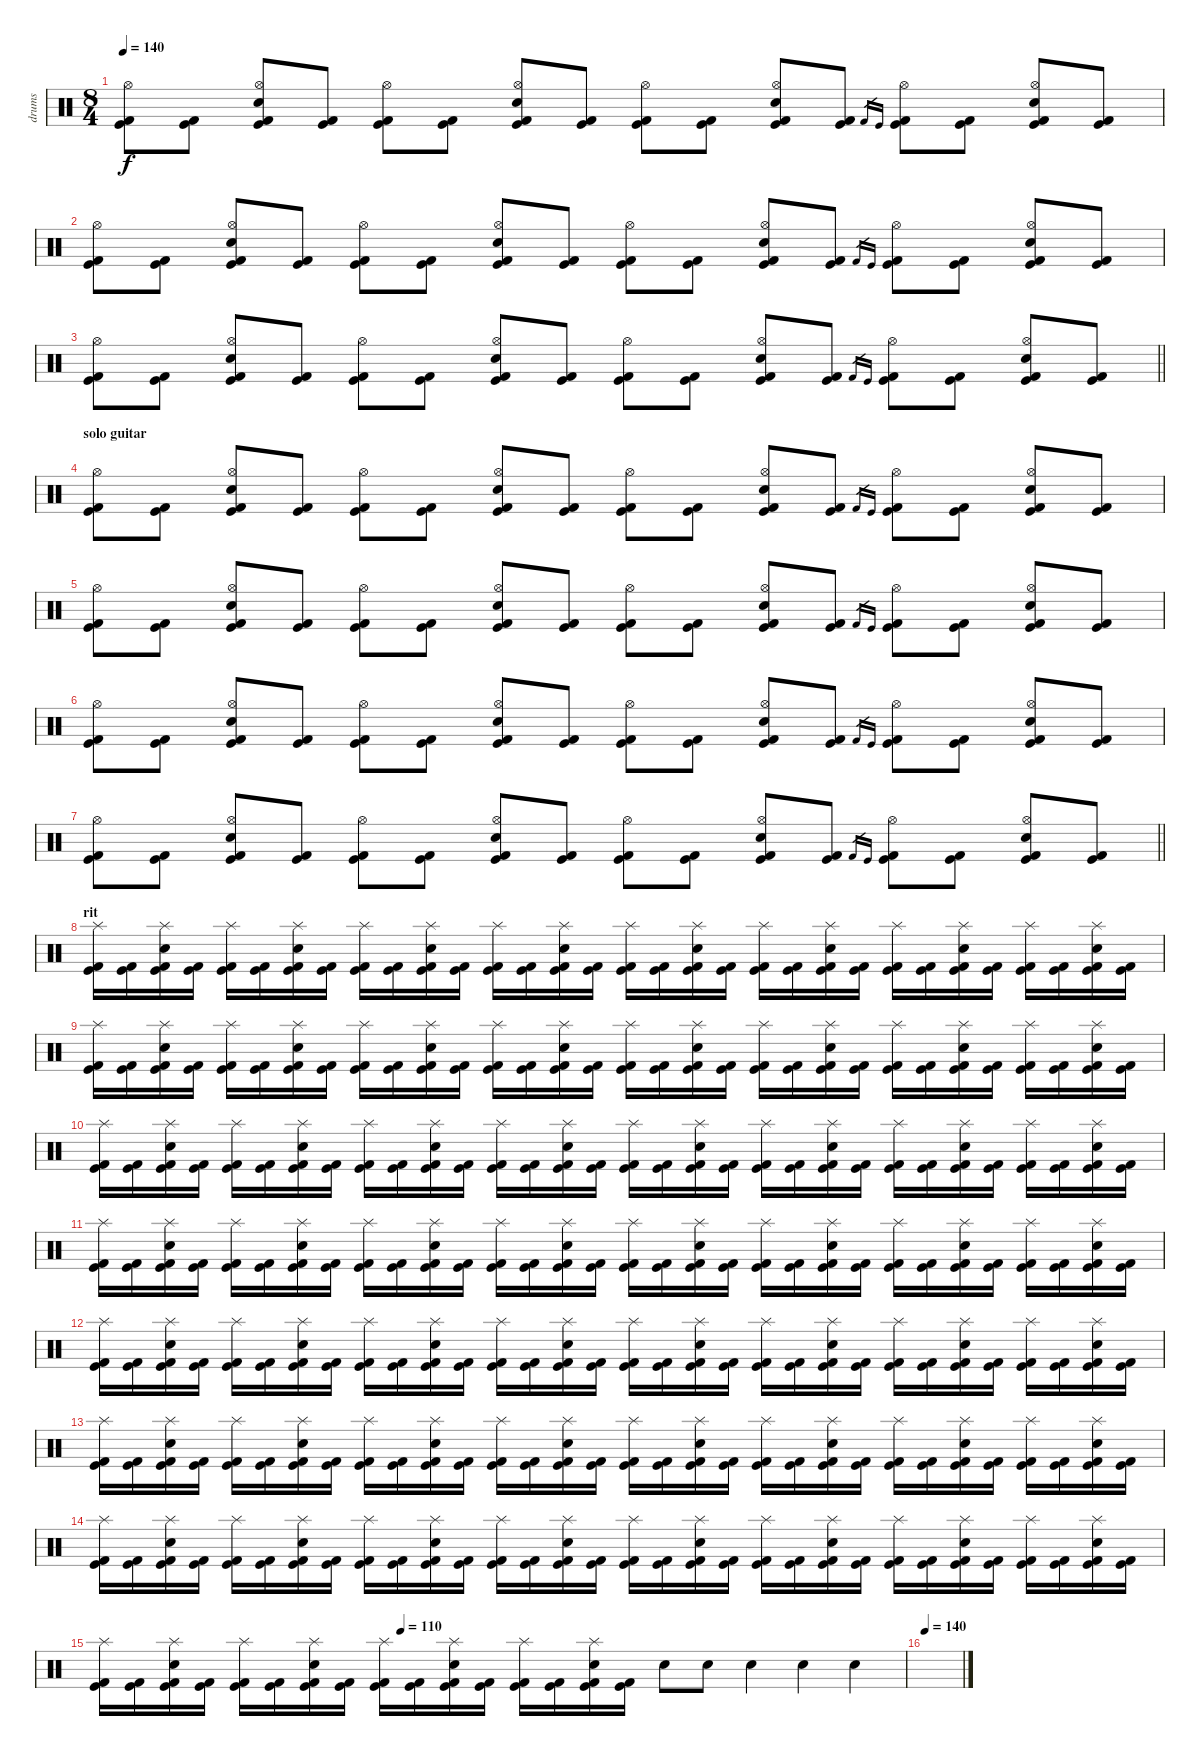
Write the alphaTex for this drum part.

\track ("drums" "drums") {instrument percussion}
\staff {score}
\articulation defaults
\ts (8 4)
\tempo 140
\clef neutral
\ks c
("Kick (hit) 2" "Kick (hit)" "Hi-Hat (open)").8{dy f} ("Kick (hit) 2" "Kick (hit)").8 ("Kick (hit) 2" "Kick (hit)" "Snare (hit) 2" "Hi-Hat (open)").8 ("Kick (hit) 2" "Kick (hit)").8 ("Kick (hit) 2" "Kick (hit)" "Hi-Hat (open)").8 ("Kick (hit) 2" "Kick (hit)").8 ("Kick (hit) 2" "Kick (hit)" "Snare (hit) 2" "Hi-Hat (open)").8 ("Kick (hit) 2" "Kick (hit)").8 ("Kick (hit) 2" "Kick (hit)" "Hi-Hat (open)").8 ("Kick (hit) 2" "Kick (hit)").8 ("Kick (hit) 2" "Kick (hit)" "Snare (hit) 2" "Hi-Hat (open)").8 ("Kick (hit) 2" "Kick (hit)").8 "Kick (hit) 2".16{gr} "Kick (hit)".16{gr} ("Kick (hit) 2" "Kick (hit)" "Hi-Hat (open)").8 ("Kick (hit) 2" "Kick (hit)").8 ("Kick (hit) 2" "Kick (hit)" "Snare (hit) 2" "Hi-Hat (open)").8 ("Kick (hit) 2" "Kick (hit)").8 |
("Kick (hit) 2" "Kick (hit)" "Hi-Hat (open)").8 ("Kick (hit) 2" "Kick (hit)").8 ("Kick (hit) 2" "Kick (hit)" "Snare (hit) 2" "Hi-Hat (open)").8 ("Kick (hit) 2" "Kick (hit)").8 ("Kick (hit) 2" "Kick (hit)" "Hi-Hat (open)").8 ("Kick (hit) 2" "Kick (hit)").8 ("Kick (hit) 2" "Kick (hit)" "Snare (hit) 2" "Hi-Hat (open)").8 ("Kick (hit) 2" "Kick (hit)").8 ("Kick (hit) 2" "Kick (hit)" "Hi-Hat (open)").8 ("Kick (hit) 2" "Kick (hit)").8 ("Kick (hit) 2" "Kick (hit)" "Snare (hit) 2" "Hi-Hat (open)").8 ("Kick (hit) 2" "Kick (hit)").8 "Kick (hit) 2".16{gr} "Kick (hit)".16{gr} ("Kick (hit) 2" "Kick (hit)" "Hi-Hat (open)").8 ("Kick (hit) 2" "Kick (hit)").8 ("Kick (hit) 2" "Kick (hit)" "Snare (hit) 2" "Hi-Hat (open)").8 ("Kick (hit) 2" "Kick (hit)").8 |
\barLineRight lightlight
("Kick (hit) 2" "Kick (hit)" "Hi-Hat (open)").8 ("Kick (hit) 2" "Kick (hit)").8 ("Kick (hit) 2" "Kick (hit)" "Snare (hit) 2" "Hi-Hat (open)").8 ("Kick (hit) 2" "Kick (hit)").8 ("Kick (hit) 2" "Kick (hit)" "Hi-Hat (open)").8 ("Kick (hit) 2" "Kick (hit)").8 ("Kick (hit) 2" "Kick (hit)" "Snare (hit) 2" "Hi-Hat (open)").8 ("Kick (hit) 2" "Kick (hit)").8 ("Kick (hit) 2" "Kick (hit)" "Hi-Hat (open)").8 ("Kick (hit) 2" "Kick (hit)").8 ("Kick (hit) 2" "Kick (hit)" "Snare (hit) 2" "Hi-Hat (open)").8 ("Kick (hit) 2" "Kick (hit)").8 "Kick (hit) 2".16{gr} "Kick (hit)".16{gr} ("Kick (hit) 2" "Kick (hit)" "Hi-Hat (open)").8 ("Kick (hit) 2" "Kick (hit)").8 ("Kick (hit) 2" "Kick (hit)" "Snare (hit) 2" "Hi-Hat (open)").8 ("Kick (hit) 2" "Kick (hit)").8 |
\section ("" "solo guitar")
("Kick (hit) 2" "Kick (hit)" "Hi-Hat (open)").8 ("Kick (hit) 2" "Kick (hit)").8 ("Kick (hit) 2" "Kick (hit)" "Snare (hit) 2" "Hi-Hat (open)").8 ("Kick (hit) 2" "Kick (hit)").8 ("Kick (hit) 2" "Kick (hit)" "Hi-Hat (open)").8 ("Kick (hit) 2" "Kick (hit)").8 ("Kick (hit) 2" "Kick (hit)" "Snare (hit) 2" "Hi-Hat (open)").8 ("Kick (hit) 2" "Kick (hit)").8 ("Kick (hit) 2" "Kick (hit)" "Hi-Hat (open)").8 ("Kick (hit) 2" "Kick (hit)").8 ("Kick (hit) 2" "Kick (hit)" "Snare (hit) 2" "Hi-Hat (open)").8 ("Kick (hit) 2" "Kick (hit)").8 "Kick (hit) 2".16{gr} "Kick (hit)".16{gr} ("Kick (hit) 2" "Kick (hit)" "Hi-Hat (open)").8 ("Kick (hit) 2" "Kick (hit)").8 ("Kick (hit) 2" "Kick (hit)" "Snare (hit) 2" "Hi-Hat (open)").8 ("Kick (hit) 2" "Kick (hit)").8 |
("Kick (hit) 2" "Kick (hit)" "Hi-Hat (open)").8 ("Kick (hit) 2" "Kick (hit)").8 ("Kick (hit) 2" "Kick (hit)" "Snare (hit) 2" "Hi-Hat (open)").8 ("Kick (hit) 2" "Kick (hit)").8 ("Kick (hit) 2" "Kick (hit)" "Hi-Hat (open)").8 ("Kick (hit) 2" "Kick (hit)").8 ("Kick (hit) 2" "Kick (hit)" "Snare (hit) 2" "Hi-Hat (open)").8 ("Kick (hit) 2" "Kick (hit)").8 ("Kick (hit) 2" "Kick (hit)" "Hi-Hat (open)").8 ("Kick (hit) 2" "Kick (hit)").8 ("Kick (hit) 2" "Kick (hit)" "Snare (hit) 2" "Hi-Hat (open)").8 ("Kick (hit) 2" "Kick (hit)").8 "Kick (hit) 2".16{gr} "Kick (hit)".16{gr} ("Kick (hit) 2" "Kick (hit)" "Hi-Hat (open)").8 ("Kick (hit) 2" "Kick (hit)").8 ("Kick (hit) 2" "Kick (hit)" "Snare (hit) 2" "Hi-Hat (open)").8 ("Kick (hit) 2" "Kick (hit)").8 |
("Kick (hit) 2" "Kick (hit)" "Hi-Hat (open)").8 ("Kick (hit) 2" "Kick (hit)").8 ("Kick (hit) 2" "Kick (hit)" "Snare (hit) 2" "Hi-Hat (open)").8 ("Kick (hit) 2" "Kick (hit)").8 ("Kick (hit) 2" "Kick (hit)" "Hi-Hat (open)").8 ("Kick (hit) 2" "Kick (hit)").8 ("Kick (hit) 2" "Kick (hit)" "Snare (hit) 2" "Hi-Hat (open)").8 ("Kick (hit) 2" "Kick (hit)").8 ("Kick (hit) 2" "Kick (hit)" "Hi-Hat (open)").8 ("Kick (hit) 2" "Kick (hit)").8 ("Kick (hit) 2" "Kick (hit)" "Snare (hit) 2" "Hi-Hat (open)").8 ("Kick (hit) 2" "Kick (hit)").8 "Kick (hit) 2".16{gr} "Kick (hit)".16{gr} ("Kick (hit) 2" "Kick (hit)" "Hi-Hat (open)").8 ("Kick (hit) 2" "Kick (hit)").8 ("Kick (hit) 2" "Kick (hit)" "Snare (hit) 2" "Hi-Hat (open)").8 ("Kick (hit) 2" "Kick (hit)").8 |
\barLineRight lightlight
("Kick (hit) 2" "Kick (hit)" "Hi-Hat (open)").8 ("Kick (hit) 2" "Kick (hit)").8 ("Kick (hit) 2" "Kick (hit)" "Snare (hit) 2" "Hi-Hat (open)").8 ("Kick (hit) 2" "Kick (hit)").8 ("Kick (hit) 2" "Kick (hit)" "Hi-Hat (open)").8 ("Kick (hit) 2" "Kick (hit)").8 ("Kick (hit) 2" "Kick (hit)" "Snare (hit) 2" "Hi-Hat (open)").8 ("Kick (hit) 2" "Kick (hit)").8 ("Kick (hit) 2" "Kick (hit)" "Hi-Hat (open)").8 ("Kick (hit) 2" "Kick (hit)").8 ("Kick (hit) 2" "Kick (hit)" "Snare (hit) 2" "Hi-Hat (open)").8 ("Kick (hit) 2" "Kick (hit)").8 "Kick (hit) 2".16{gr} "Kick (hit)".16{gr} ("Kick (hit) 2" "Kick (hit)" "Hi-Hat (open)").8 ("Kick (hit) 2" "Kick (hit)").8 ("Kick (hit) 2" "Kick (hit)" "Snare (hit) 2" "Hi-Hat (open)").8 ("Kick (hit) 2" "Kick (hit)").8 |
\section ("" "rit")
("Kick (hit) 2" "Kick (hit)" "Splash (hit)").16 ("Kick (hit) 2" "Kick (hit)").16 ("Kick (hit) 2" "Kick (hit)" "Snare (hit) 2" "Splash (hit)").16 ("Kick (hit) 2" "Kick (hit)").16 ("Kick (hit) 2" "Kick (hit)" "Splash (hit)").16 ("Kick (hit) 2" "Kick (hit)").16 ("Kick (hit) 2" "Kick (hit)" "Snare (hit) 2" "Splash (hit)").16 ("Kick (hit) 2" "Kick (hit)").16 ("Kick (hit) 2" "Kick (hit)" "Splash (hit)").16 ("Kick (hit) 2" "Kick (hit)").16 ("Kick (hit) 2" "Kick (hit)" "Snare (hit) 2" "Splash (hit)").16 ("Kick (hit) 2" "Kick (hit)").16 ("Kick (hit) 2" "Kick (hit)" "Splash (hit)").16 ("Kick (hit) 2" "Kick (hit)").16 ("Kick (hit) 2" "Kick (hit)" "Snare (hit) 2" "Splash (hit)").16 ("Kick (hit) 2" "Kick (hit)").16 ("Kick (hit) 2" "Kick (hit)" "Splash (hit)").16 ("Kick (hit) 2" "Kick (hit)").16 ("Kick (hit) 2" "Kick (hit)" "Snare (hit) 2" "Splash (hit)").16 ("Kick (hit) 2" "Kick (hit)").16 ("Kick (hit) 2" "Kick (hit)" "Splash (hit)").16 ("Kick (hit) 2" "Kick (hit)").16 ("Kick (hit) 2" "Kick (hit)" "Snare (hit) 2" "Splash (hit)").16 ("Kick (hit) 2" "Kick (hit)").16 ("Kick (hit) 2" "Kick (hit)" "Splash (hit)").16 ("Kick (hit) 2" "Kick (hit)").16 ("Kick (hit) 2" "Kick (hit)" "Snare (hit) 2" "Splash (hit)").16 ("Kick (hit) 2" "Kick (hit)").16 ("Kick (hit) 2" "Kick (hit)" "Splash (hit)").16 ("Kick (hit) 2" "Kick (hit)").16 ("Kick (hit) 2" "Kick (hit)" "Snare (hit) 2" "Splash (hit)").16 ("Kick (hit) 2" "Kick (hit)").16 |
("Kick (hit) 2" "Kick (hit)" "Splash (hit)").16 ("Kick (hit) 2" "Kick (hit)").16 ("Kick (hit) 2" "Kick (hit)" "Snare (hit) 2" "Splash (hit)").16 ("Kick (hit) 2" "Kick (hit)").16 ("Kick (hit) 2" "Kick (hit)" "Splash (hit)").16 ("Kick (hit) 2" "Kick (hit)").16 ("Kick (hit) 2" "Kick (hit)" "Snare (hit) 2" "Splash (hit)").16 ("Kick (hit) 2" "Kick (hit)").16 ("Kick (hit) 2" "Kick (hit)" "Splash (hit)").16 ("Kick (hit) 2" "Kick (hit)").16 ("Kick (hit) 2" "Kick (hit)" "Snare (hit) 2" "Splash (hit)").16 ("Kick (hit) 2" "Kick (hit)").16 ("Kick (hit) 2" "Kick (hit)" "Splash (hit)").16 ("Kick (hit) 2" "Kick (hit)").16 ("Kick (hit) 2" "Kick (hit)" "Snare (hit) 2" "Splash (hit)").16 ("Kick (hit) 2" "Kick (hit)").16 ("Kick (hit) 2" "Kick (hit)" "Splash (hit)").16 ("Kick (hit) 2" "Kick (hit)").16 ("Kick (hit) 2" "Kick (hit)" "Snare (hit) 2" "Splash (hit)").16 ("Kick (hit) 2" "Kick (hit)").16 ("Kick (hit) 2" "Kick (hit)" "Splash (hit)").16 ("Kick (hit) 2" "Kick (hit)").16 ("Kick (hit) 2" "Kick (hit)" "Snare (hit) 2" "Splash (hit)").16 ("Kick (hit) 2" "Kick (hit)").16 ("Kick (hit) 2" "Kick (hit)" "Splash (hit)").16 ("Kick (hit) 2" "Kick (hit)").16 ("Kick (hit) 2" "Kick (hit)" "Snare (hit) 2" "Splash (hit)").16 ("Kick (hit) 2" "Kick (hit)").16 ("Kick (hit) 2" "Kick (hit)" "Splash (hit)").16 ("Kick (hit) 2" "Kick (hit)").16 ("Kick (hit) 2" "Kick (hit)" "Snare (hit) 2" "Splash (hit)").16 ("Kick (hit) 2" "Kick (hit)").16 |
("Kick (hit) 2" "Kick (hit)" "Splash (hit)").16 ("Kick (hit) 2" "Kick (hit)").16 ("Kick (hit) 2" "Kick (hit)" "Snare (hit) 2" "Splash (hit)").16 ("Kick (hit) 2" "Kick (hit)").16 ("Kick (hit) 2" "Kick (hit)" "Splash (hit)").16 ("Kick (hit) 2" "Kick (hit)").16 ("Kick (hit) 2" "Kick (hit)" "Snare (hit) 2" "Splash (hit)").16 ("Kick (hit) 2" "Kick (hit)").16 ("Kick (hit) 2" "Kick (hit)" "Splash (hit)").16 ("Kick (hit) 2" "Kick (hit)").16 ("Kick (hit) 2" "Kick (hit)" "Snare (hit) 2" "Splash (hit)").16 ("Kick (hit) 2" "Kick (hit)").16 ("Kick (hit) 2" "Kick (hit)" "Splash (hit)").16 ("Kick (hit) 2" "Kick (hit)").16 ("Kick (hit) 2" "Kick (hit)" "Snare (hit) 2" "Splash (hit)").16 ("Kick (hit) 2" "Kick (hit)").16 ("Kick (hit) 2" "Kick (hit)" "Splash (hit)").16 ("Kick (hit) 2" "Kick (hit)").16 ("Kick (hit) 2" "Kick (hit)" "Snare (hit) 2" "Splash (hit)").16 ("Kick (hit) 2" "Kick (hit)").16 ("Kick (hit) 2" "Kick (hit)" "Splash (hit)").16 ("Kick (hit) 2" "Kick (hit)").16 ("Kick (hit) 2" "Kick (hit)" "Snare (hit) 2" "Splash (hit)").16 ("Kick (hit) 2" "Kick (hit)").16 ("Kick (hit) 2" "Kick (hit)" "Splash (hit)").16 ("Kick (hit) 2" "Kick (hit)").16 ("Kick (hit) 2" "Kick (hit)" "Snare (hit) 2" "Splash (hit)").16 ("Kick (hit) 2" "Kick (hit)").16 ("Kick (hit) 2" "Kick (hit)" "Splash (hit)").16 ("Kick (hit) 2" "Kick (hit)").16 ("Kick (hit) 2" "Kick (hit)" "Snare (hit) 2" "Splash (hit)").16 ("Kick (hit) 2" "Kick (hit)").16 |
("Kick (hit) 2" "Kick (hit)" "Splash (hit)").16 ("Kick (hit) 2" "Kick (hit)").16 ("Kick (hit) 2" "Kick (hit)" "Snare (hit) 2" "Splash (hit)").16 ("Kick (hit) 2" "Kick (hit)").16 ("Kick (hit) 2" "Kick (hit)" "Splash (hit)").16 ("Kick (hit) 2" "Kick (hit)").16 ("Kick (hit) 2" "Kick (hit)" "Snare (hit) 2" "Splash (hit)").16 ("Kick (hit) 2" "Kick (hit)").16 ("Kick (hit) 2" "Kick (hit)" "Splash (hit)").16 ("Kick (hit) 2" "Kick (hit)").16 ("Kick (hit) 2" "Kick (hit)" "Snare (hit) 2" "Splash (hit)").16 ("Kick (hit) 2" "Kick (hit)").16 ("Kick (hit) 2" "Kick (hit)" "Splash (hit)").16 ("Kick (hit) 2" "Kick (hit)").16 ("Kick (hit) 2" "Kick (hit)" "Snare (hit) 2" "Splash (hit)").16 ("Kick (hit) 2" "Kick (hit)").16 ("Kick (hit) 2" "Kick (hit)" "Splash (hit)").16 ("Kick (hit) 2" "Kick (hit)").16 ("Kick (hit) 2" "Kick (hit)" "Snare (hit) 2" "Splash (hit)").16 ("Kick (hit) 2" "Kick (hit)").16 ("Kick (hit) 2" "Kick (hit)" "Splash (hit)").16 ("Kick (hit) 2" "Kick (hit)").16 ("Kick (hit) 2" "Kick (hit)" "Snare (hit) 2" "Splash (hit)").16 ("Kick (hit) 2" "Kick (hit)").16 ("Kick (hit) 2" "Kick (hit)" "Splash (hit)").16 ("Kick (hit) 2" "Kick (hit)").16 ("Kick (hit) 2" "Kick (hit)" "Snare (hit) 2" "Splash (hit)").16 ("Kick (hit) 2" "Kick (hit)").16 ("Kick (hit) 2" "Kick (hit)" "Splash (hit)").16 ("Kick (hit) 2" "Kick (hit)").16 ("Kick (hit) 2" "Kick (hit)" "Snare (hit) 2" "Splash (hit)").16 ("Kick (hit) 2" "Kick (hit)").16 |
("Kick (hit) 2" "Kick (hit)" "Splash (hit)").16 ("Kick (hit) 2" "Kick (hit)").16 ("Kick (hit) 2" "Kick (hit)" "Snare (hit) 2" "Splash (hit)").16 ("Kick (hit) 2" "Kick (hit)").16 ("Kick (hit) 2" "Kick (hit)" "Splash (hit)").16 ("Kick (hit) 2" "Kick (hit)").16 ("Kick (hit) 2" "Kick (hit)" "Snare (hit) 2" "Splash (hit)").16 ("Kick (hit) 2" "Kick (hit)").16 ("Kick (hit) 2" "Kick (hit)" "Splash (hit)").16 ("Kick (hit) 2" "Kick (hit)").16 ("Kick (hit) 2" "Kick (hit)" "Snare (hit) 2" "Splash (hit)").16 ("Kick (hit) 2" "Kick (hit)").16 ("Kick (hit) 2" "Kick (hit)" "Splash (hit)").16 ("Kick (hit) 2" "Kick (hit)").16 ("Kick (hit) 2" "Kick (hit)" "Snare (hit) 2" "Splash (hit)").16 ("Kick (hit) 2" "Kick (hit)").16 ("Kick (hit) 2" "Kick (hit)" "Splash (hit)").16 ("Kick (hit) 2" "Kick (hit)").16 ("Kick (hit) 2" "Kick (hit)" "Snare (hit) 2" "Splash (hit)").16 ("Kick (hit) 2" "Kick (hit)").16 ("Kick (hit) 2" "Kick (hit)" "Splash (hit)").16 ("Kick (hit) 2" "Kick (hit)").16 ("Kick (hit) 2" "Kick (hit)" "Snare (hit) 2" "Splash (hit)").16 ("Kick (hit) 2" "Kick (hit)").16 ("Kick (hit) 2" "Kick (hit)" "Splash (hit)").16 ("Kick (hit) 2" "Kick (hit)").16 ("Kick (hit) 2" "Kick (hit)" "Snare (hit) 2" "Splash (hit)").16 ("Kick (hit) 2" "Kick (hit)").16 ("Kick (hit) 2" "Kick (hit)" "Splash (hit)").16 ("Kick (hit) 2" "Kick (hit)").16 ("Kick (hit) 2" "Kick (hit)" "Snare (hit) 2" "Splash (hit)").16 ("Kick (hit) 2" "Kick (hit)").16 |
("Kick (hit) 2" "Kick (hit)" "Splash (hit)").16 ("Kick (hit) 2" "Kick (hit)").16 ("Kick (hit) 2" "Kick (hit)" "Snare (hit) 2" "Splash (hit)").16 ("Kick (hit) 2" "Kick (hit)").16 ("Kick (hit) 2" "Kick (hit)" "Splash (hit)").16 ("Kick (hit) 2" "Kick (hit)").16 ("Kick (hit) 2" "Kick (hit)" "Snare (hit) 2" "Splash (hit)").16 ("Kick (hit) 2" "Kick (hit)").16 ("Kick (hit) 2" "Kick (hit)" "Splash (hit)").16 ("Kick (hit) 2" "Kick (hit)").16 ("Kick (hit) 2" "Kick (hit)" "Snare (hit) 2" "Splash (hit)").16 ("Kick (hit) 2" "Kick (hit)").16 ("Kick (hit) 2" "Kick (hit)" "Splash (hit)").16 ("Kick (hit) 2" "Kick (hit)").16 ("Kick (hit) 2" "Kick (hit)" "Snare (hit) 2" "Splash (hit)").16 ("Kick (hit) 2" "Kick (hit)").16 ("Kick (hit) 2" "Kick (hit)" "Splash (hit)").16 ("Kick (hit) 2" "Kick (hit)").16 ("Kick (hit) 2" "Kick (hit)" "Snare (hit) 2" "Splash (hit)").16 ("Kick (hit) 2" "Kick (hit)").16 ("Kick (hit) 2" "Kick (hit)" "Splash (hit)").16 ("Kick (hit) 2" "Kick (hit)").16 ("Kick (hit) 2" "Kick (hit)" "Snare (hit) 2" "Splash (hit)").16 ("Kick (hit) 2" "Kick (hit)").16 ("Kick (hit) 2" "Kick (hit)" "Splash (hit)").16 ("Kick (hit) 2" "Kick (hit)").16 ("Kick (hit) 2" "Kick (hit)" "Snare (hit) 2" "Splash (hit)").16 ("Kick (hit) 2" "Kick (hit)").16 ("Kick (hit) 2" "Kick (hit)" "Splash (hit)").16 ("Kick (hit) 2" "Kick (hit)").16 ("Kick (hit) 2" "Kick (hit)" "Snare (hit) 2" "Splash (hit)").16 ("Kick (hit) 2" "Kick (hit)").16 |
("Kick (hit) 2" "Kick (hit)" "Splash (hit)").16 ("Kick (hit) 2" "Kick (hit)").16 ("Kick (hit) 2" "Kick (hit)" "Snare (hit) 2" "Splash (hit)").16 ("Kick (hit) 2" "Kick (hit)").16 ("Kick (hit) 2" "Kick (hit)" "Splash (hit)").16 ("Kick (hit) 2" "Kick (hit)").16 ("Kick (hit) 2" "Kick (hit)" "Snare (hit) 2" "Splash (hit)").16 ("Kick (hit) 2" "Kick (hit)").16 ("Kick (hit) 2" "Kick (hit)" "Splash (hit)").16 ("Kick (hit) 2" "Kick (hit)").16 ("Kick (hit) 2" "Kick (hit)" "Snare (hit) 2" "Splash (hit)").16 ("Kick (hit) 2" "Kick (hit)").16 ("Kick (hit) 2" "Kick (hit)" "Splash (hit)").16 ("Kick (hit) 2" "Kick (hit)").16 ("Kick (hit) 2" "Kick (hit)" "Snare (hit) 2" "Splash (hit)").16 ("Kick (hit) 2" "Kick (hit)").16 ("Kick (hit) 2" "Kick (hit)" "Splash (hit)").16 ("Kick (hit) 2" "Kick (hit)").16 ("Kick (hit) 2" "Kick (hit)" "Snare (hit) 2" "Splash (hit)").16 ("Kick (hit) 2" "Kick (hit)").16 ("Kick (hit) 2" "Kick (hit)" "Splash (hit)").16 ("Kick (hit) 2" "Kick (hit)").16 ("Kick (hit) 2" "Kick (hit)" "Snare (hit) 2" "Splash (hit)").16 ("Kick (hit) 2" "Kick (hit)").16 ("Kick (hit) 2" "Kick (hit)" "Splash (hit)").16 ("Kick (hit) 2" "Kick (hit)").16 ("Kick (hit) 2" "Kick (hit)" "Snare (hit) 2" "Splash (hit)").16 ("Kick (hit) 2" "Kick (hit)").16 ("Kick (hit) 2" "Kick (hit)" "Splash (hit)").16 ("Kick (hit) 2" "Kick (hit)").16 ("Kick (hit) 2" "Kick (hit)" "Snare (hit) 2" "Splash (hit)").16 ("Kick (hit) 2" "Kick (hit)").16 |
\tempo (110 0.375)
("Kick (hit) 2" "Kick (hit)" "Splash (hit)").16 ("Kick (hit) 2" "Kick (hit)").16 ("Kick (hit) 2" "Kick (hit)" "Snare (hit) 2" "Splash (hit)").16 ("Kick (hit) 2" "Kick (hit)").16 ("Kick (hit) 2" "Kick (hit)" "Splash (hit)").16 ("Kick (hit) 2" "Kick (hit)").16 ("Kick (hit) 2" "Kick (hit)" "Snare (hit) 2" "Splash (hit)").16 ("Kick (hit) 2" "Kick (hit)").16 ("Kick (hit) 2" "Kick (hit)" "Splash (hit)").16 ("Kick (hit) 2" "Kick (hit)").16 ("Kick (hit) 2" "Kick (hit)" "Snare (hit) 2" "Splash (hit)").16 ("Kick (hit) 2" "Kick (hit)").16 ("Kick (hit) 2" "Kick (hit)" "Splash (hit)").16 ("Kick (hit) 2" "Kick (hit)").16 ("Kick (hit) 2" "Kick (hit)" "Snare (hit) 2" "Splash (hit)").16 ("Kick (hit) 2" "Kick (hit)").16 "Snare (hit) 2".8 "Snare (hit) 2".8 "Snare (hit) 2".4 "Snare (hit) 2".4 "Snare (hit) 2".4 |
\tempo 140
